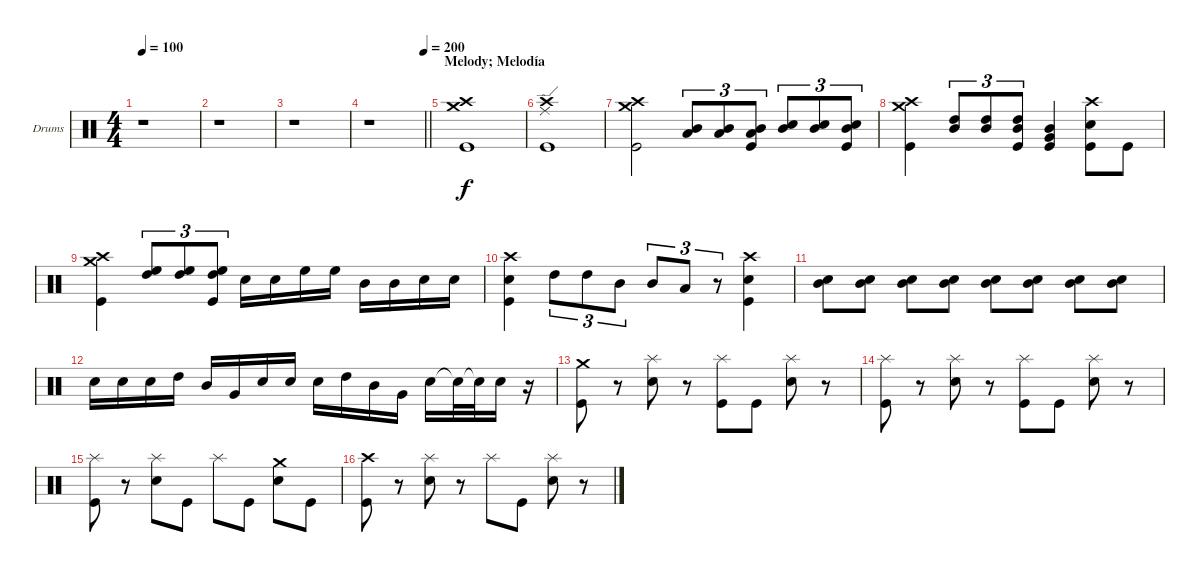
\bracketExtendMode groupsimilarinstruments
\firstSystemTrackNameOrientation horizontal
\otherSystemsTrackNameOrientation horizontal
\track ("Drumkit" "Drums") {instrument percussion}
\staff {score}
\articulation defaults
\ts (4 4)
\tempo 100
\clef neutral
\ks c
r.1{dy f} |
r.1 |
r.1 |
\tempo (200 1)
\barLineRight lightlight
r.1 |
\section ("" "Melody; Melodía")
("Crash high (hit)" "Crash medium (hit)" "Kick (hit)").1 |
("Ride (edge)" "Crash high (hit)" "Kick (hit)").1 |
("Crash high (hit)" "Crash medium (hit)" "Kick (hit)").2 ("Mid Tom (hit)" "Low Tom (hit)").8{tu (3 2)} ("Mid Tom (hit)" "Low Tom (hit)").8{tu (3 2)} ("Mid Tom (hit)" "Low Tom (hit)" "Kick (hit)").8{tu (3 2)} ("Mid Tom (hit)" "Snare (hit) 2").8{tu (3 2)} ("Mid Tom (hit)" "Snare (hit) 2").8{tu (3 2)} ("Mid Tom (hit)" "Snare (hit) 2" "Kick (hit)").8{tu (3 2)} |
("Crash high (hit)" "Crash medium (hit)" "Kick (hit)").4 ("Mid Tom (hit)" "High Tom (hit)").8{tu (3 2)} ("Mid Tom (hit)" "High Tom (hit)").8{tu (3 2)} ("Mid Tom (hit)" "High Tom (hit)" "Kick (hit)").8{tu (3 2)} ("Very Low Tom (hit)" "Mid Tom (hit)" "Kick (hit)").4 ("Crash high (hit)" "Snare (hit) 2" "Kick (hit)").8 "Kick (hit)".8 |
("Crash high (hit)" "Crash medium (hit)" "Kick (hit)").4 ("High Floor Tom (hit)" "High Tom (hit)").8{tu (3 2)} ("High Floor Tom (hit)" "High Tom (hit)").8{tu (3 2)} ("High Floor Tom (hit)" "High Tom (hit)" "Kick (hit)").8{tu (3 2)} "Snare (hit) 2".16 "Snare (hit) 2".16 "High Floor Tom (hit)".16 "High Floor Tom (hit)".16 "Mid Tom (hit)".16 "Mid Tom (hit)".16 "Snare (hit) 2".16 "Snare (hit) 2".16 |
("Crash high (hit)" "Snare (hit) 2" "Kick (hit)").4 "High Tom (hit)".8{tu (3 2)} "High Tom (hit)".8{tu (3 2)} "Mid Tom (hit)".8{tu (3 2)} "Mid Tom (hit)".8{tu (3 2)} "Low Tom (hit)".8{tu (3 2)} r.8{tu (3 2)} ("Crash high (hit)" "Snare (hit) 2" "Kick (hit)").4 |
("Snare (hit) 2" "Mid Tom (hit)").8 ("Snare (hit) 2" "Mid Tom (hit)").8 ("Snare (hit) 2" "Mid Tom (hit)").8 ("Snare (hit) 2" "Mid Tom (hit)").8 ("Snare (hit) 2" "Mid Tom (hit)").8 ("Snare (hit) 2" "Mid Tom (hit)").8 ("Snare (hit) 2" "Mid Tom (hit)").8 ("Snare (hit) 2" "Mid Tom (hit)").8 |
"Snare (hit) 2".16 "Snare (hit) 2".16 "Snare (hit) 2".16 "High Tom (hit)".16 "Mid Tom (hit)".16 "Very Low Tom (hit)".16 "Snare (hit) 2".16 "Snare (hit) 2".16 "Snare (hit) 2".16 "High Tom (hit)".16 "Mid Tom (hit)".16 "Very Low Tom (hit)".16 "Snare (hit) 2".16 "Snare (hit) 2"{t}.32 "Snare (hit) 2"{t}.32 "Snare (hit) 2".16 r.16 |
("Crash medium (hit)" "Kick (hit)").8 r.8 ("Splash (hit)" "Snare (hit) 2").8 r.8 ("Splash (hit)" "Kick (hit)").8 "Kick (hit)".8 ("Splash (hit)" "Snare (hit) 2").8 r.8 |
("Splash (hit)" "Kick (hit)").8 r.8 ("Splash (hit)" "Snare (hit) 2").8 r.8 ("Splash (hit)" "Kick (hit)").8 "Kick (hit)".8 ("Splash (hit)" "Snare (hit) 2").8 r.8 |
("Splash (hit)" "Kick (hit)").8 r.8 ("Splash (hit)" "Snare (hit) 2").8 "Kick (hit)".8 "Splash (hit)".8 "Kick (hit)".8 ("Crash medium (hit)" "Snare (hit) 2").8 "Kick (hit)".8 |
("Crash high (hit)" "Kick (hit)").8 r.8 ("Splash (hit)" "Snare (hit) 2").8 r.8 "Splash (hit)".8 "Kick (hit)".8 ("Splash (hit)" "Snare (hit) 2").8 r.8
